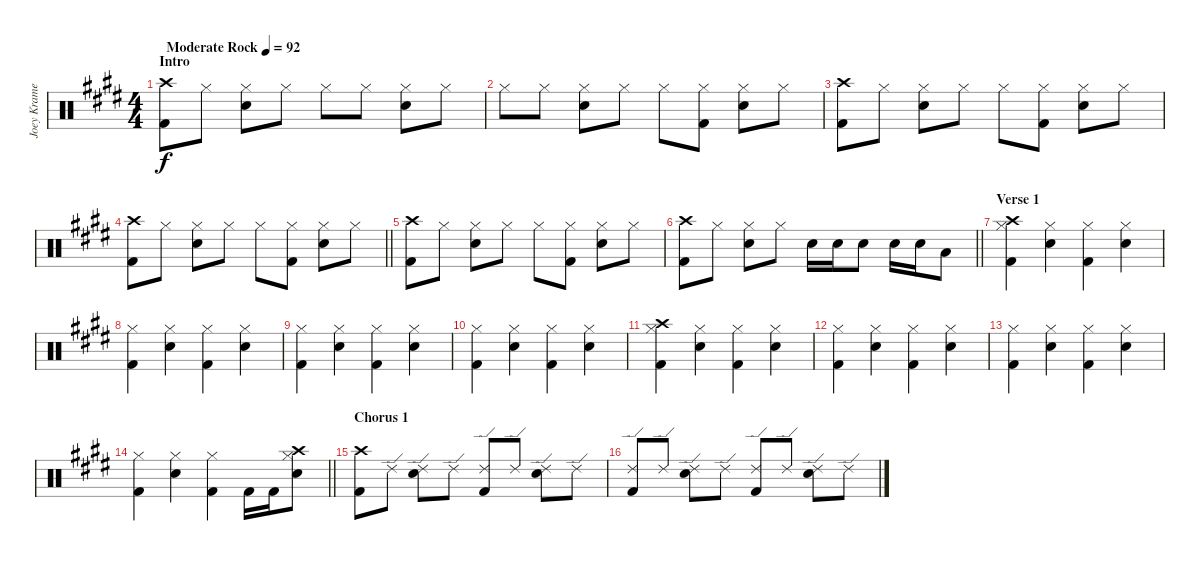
\track ("Joey Kramer" "Joey Krame") {instrument percussion}
\staff {score}
\articulation defaults
\ts (4 4)
\section ("" "Intro")
\tempo (92 "Moderate Rock")
\clef neutral
\ks c#minor
("Crash high (hit)" "Kick (hit) 2").8{dy f} "Hi-Hat (closed)".8 ("Hi-Hat (closed)" "Electric Snare (hit)").8 "Hi-Hat (closed)".8 "Hi-Hat (closed)".8 "Hi-Hat (closed)".8 ("Hi-Hat (closed)" "Electric Snare (hit)").8 "Hi-Hat (closed)".8 |
\ks e "Hi-Hat (closed)".8 "Hi-Hat (closed)".8
("Hi-Hat (closed)" "Electric Snare (hit)").8 "Hi-Hat (closed)".8 "Hi-Hat (closed)".8 ("Hi-Hat (closed)" "Kick (hit) 2").8 ("Hi-Hat (closed)" "Electric Snare (hit)").8 "Hi-Hat (closed)".8 |
\ks c#minor
("Crash high (hit)" "Kick (hit) 2").8 "Hi-Hat (closed)".8 ("Hi-Hat (closed)" "Electric Snare (hit)").8 "Hi-Hat (closed)".8 "Hi-Hat (closed)".8 ("Hi-Hat (closed)" "Kick (hit) 2").8 ("Hi-Hat (closed)" "Electric Snare (hit)").8 "Hi-Hat (closed)".8 |
\barLineRight lightlight
("Crash high (hit)" "Kick (hit) 2").8 "Hi-Hat (closed)".8 ("Hi-Hat (closed)" "Electric Snare (hit)").8 "Hi-Hat (closed)".8 "Hi-Hat (closed)".8 ("Hi-Hat (closed)" "Kick (hit) 2").8 ("Hi-Hat (closed)" "Electric Snare (hit)").8 "Hi-Hat (closed)".8 |
\ks e
("Crash high (hit)" "Kick (hit) 2").8 "Hi-Hat (closed)".8 ("Hi-Hat (closed)" "Electric Snare (hit)").8 "Hi-Hat (closed)".8 "Hi-Hat (closed)".8 ("Hi-Hat (closed)" "Kick (hit) 2").8 ("Hi-Hat (closed)" "Electric Snare (hit)").8 "Hi-Hat (closed)".8 |
\barLineRight lightlight
\ks c#minor
("Crash high (hit)" "Kick (hit) 2").8 "Hi-Hat (closed)".8 ("Hi-Hat (closed)" "Electric Snare (hit)").8 "Hi-Hat (closed)".8 "Electric Snare (hit)".16 "Electric Snare (hit)".16 "Electric Snare (hit)".8 "Electric Snare (hit)".16 "Electric Snare (hit)".16 "Low Tom (hit)".8 |
\section ("" "Verse 1")
\ks e
("Crash high (hit)" "Hi-Hat (closed)" "Kick (hit) 2").4 ("Hi-Hat (closed)" "Electric Snare (hit)").4 ("Hi-Hat (closed)" "Kick (hit) 2").4 ("Hi-Hat (closed)" "Electric Snare (hit)").4 |
\ks c#minor
("Hi-Hat (closed)" "Kick (hit) 2").4 ("Hi-Hat (closed)" "Electric Snare (hit)").4 ("Hi-Hat (closed)" "Kick (hit) 2").4 ("Hi-Hat (closed)" "Electric Snare (hit)").4 |
\ks e
("Hi-Hat (closed)" "Kick (hit) 2").4 ("Hi-Hat (closed)" "Electric Snare (hit)").4 ("Hi-Hat (closed)" "Kick (hit) 2").4 ("Hi-Hat (closed)" "Electric Snare (hit)").4 |
\ks c#minor
("Hi-Hat (closed)" "Kick (hit) 2").4 ("Hi-Hat (closed)" "Electric Snare (hit)").4 ("Hi-Hat (closed)" "Kick (hit) 2").4 ("Hi-Hat (closed)" "Electric Snare (hit)").4 |
\ks e
("Crash high (hit)" "Hi-Hat (closed)" "Kick (hit) 2").4 ("Hi-Hat (closed)" "Electric Snare (hit)").4 ("Hi-Hat (closed)" "Kick (hit) 2").4 ("Hi-Hat (closed)" "Electric Snare (hit)").4 |
\ks c#minor
("Hi-Hat (closed)" "Kick (hit) 2").4 ("Hi-Hat (closed)" "Electric Snare (hit)").4 ("Hi-Hat (closed)" "Kick (hit) 2").4 ("Hi-Hat (closed)" "Electric Snare (hit)").4 |
\ks e
("Hi-Hat (closed)" "Kick (hit) 2").4 ("Hi-Hat (closed)" "Electric Snare (hit)").4 ("Hi-Hat (closed)" "Kick (hit) 2").4 ("Hi-Hat (closed)" "Electric Snare (hit)").4 |
\barLineRight lightlight
\ks c#minor
("Hi-Hat (closed)" "Kick (hit) 2").4 ("Hi-Hat (closed)" "Electric Snare (hit)").4 ("Hi-Hat (closed)" "Kick (hit) 2").4 "Kick (hit) 2".16 "Kick (hit) 2".16 ("Crash high (hit)" "Hi-Hat (closed)" "Electric Snare (hit)").8 |
\section ("" "Chorus 1")
\ks e
("Crash high (hit)" "Kick (hit) 2").8 "Ride (edge) 2".8 ("Ride (edge) 2" "Electric Snare (hit)").8 "Ride (edge) 2".8 ("Ride (edge) 2" "Kick (hit) 2").8 "Ride (edge) 2".8 ("Ride (edge) 2" "Electric Snare (hit)").8 "Ride (edge) 2".8 |
\ks c#minor
("Ride (edge) 2" "Kick (hit) 2").8 "Ride (edge) 2".8 ("Ride (edge) 2" "Electric Snare (hit)").8 "Ride (edge) 2".8 ("Ride (edge) 2" "Kick (hit) 2").8 "Ride (edge) 2".8 ("Ride (edge) 2" "Electric Snare (hit)").8 "Ride (edge) 2".8
